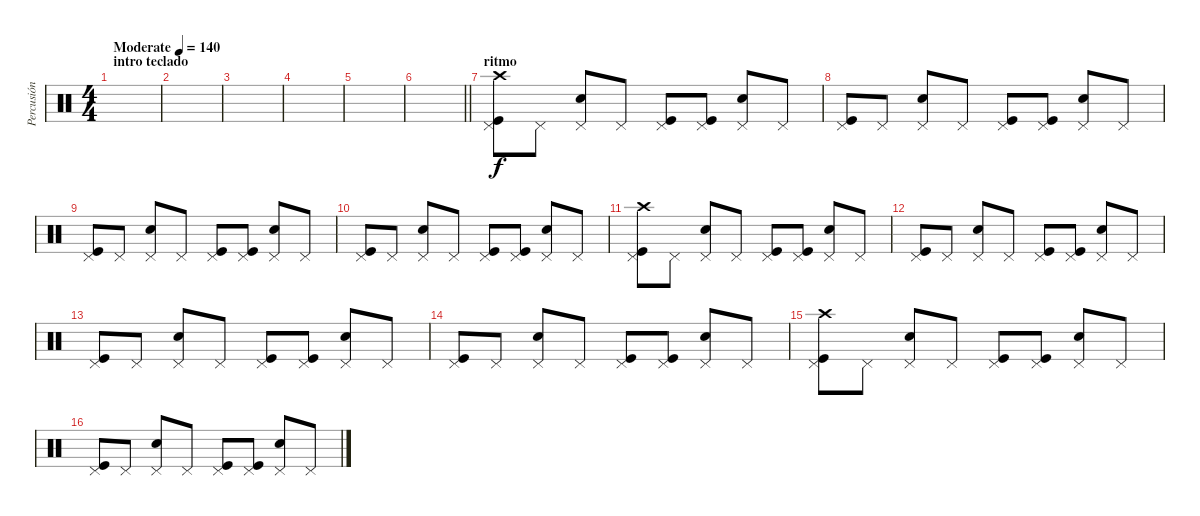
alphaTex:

\track ("Percusión" "Percusión") {instrument percussion}
\staff {score}
\articulation defaults
\ts (4 4)
\section ("" "intro teclado")
\tempo (140 "Moderate")
\clef neutral
\ks c
|
|
|
|
|
\barLineRight lightlight
|
\section ("" "ritmo")
("Crash high (hit)" "Kick (hit)" "Pedal Hi-Hat (hit)").8 "Pedal Hi-Hat (hit)".8 ("Snare (hit) 2" "Pedal Hi-Hat (hit)").8 "Pedal Hi-Hat (hit)".8 ("Kick (hit)" "Pedal Hi-Hat (hit)").8 ("Kick (hit)" "Pedal Hi-Hat (hit)").8 ("Snare (hit) 2" "Pedal Hi-Hat (hit)").8 "Pedal Hi-Hat (hit)".8 |
("Kick (hit)" "Pedal Hi-Hat (hit)").8 "Pedal Hi-Hat (hit)".8 ("Snare (hit) 2" "Pedal Hi-Hat (hit)").8 "Pedal Hi-Hat (hit)".8 ("Kick (hit)" "Pedal Hi-Hat (hit)").8 ("Kick (hit)" "Pedal Hi-Hat (hit)").8 ("Snare (hit) 2" "Pedal Hi-Hat (hit)").8 "Pedal Hi-Hat (hit)".8 |
("Kick (hit)" "Pedal Hi-Hat (hit)").8 "Pedal Hi-Hat (hit)".8 ("Snare (hit) 2" "Pedal Hi-Hat (hit)").8 "Pedal Hi-Hat (hit)".8 ("Kick (hit)" "Pedal Hi-Hat (hit)").8 ("Kick (hit)" "Pedal Hi-Hat (hit)").8 ("Snare (hit) 2" "Pedal Hi-Hat (hit)").8 "Pedal Hi-Hat (hit)".8 |
("Kick (hit)" "Pedal Hi-Hat (hit)").8 "Pedal Hi-Hat (hit)".8 ("Snare (hit) 2" "Pedal Hi-Hat (hit)").8 "Pedal Hi-Hat (hit)".8 ("Kick (hit)" "Pedal Hi-Hat (hit)").8 ("Kick (hit)" "Pedal Hi-Hat (hit)").8 ("Snare (hit) 2" "Pedal Hi-Hat (hit)").8 "Pedal Hi-Hat (hit)".8 |
("Crash high (hit)" "Kick (hit)" "Pedal Hi-Hat (hit)").8 "Pedal Hi-Hat (hit)".8 ("Snare (hit) 2" "Pedal Hi-Hat (hit)").8 "Pedal Hi-Hat (hit)".8 ("Kick (hit)" "Pedal Hi-Hat (hit)").8 ("Kick (hit)" "Pedal Hi-Hat (hit)").8 ("Snare (hit) 2" "Pedal Hi-Hat (hit)").8 "Pedal Hi-Hat (hit)".8 |
("Kick (hit)" "Pedal Hi-Hat (hit)").8 "Pedal Hi-Hat (hit)".8 ("Snare (hit) 2" "Pedal Hi-Hat (hit)").8 "Pedal Hi-Hat (hit)".8 ("Kick (hit)" "Pedal Hi-Hat (hit)").8 ("Kick (hit)" "Pedal Hi-Hat (hit)").8 ("Snare (hit) 2" "Pedal Hi-Hat (hit)").8 "Pedal Hi-Hat (hit)".8 |
("Kick (hit)" "Pedal Hi-Hat (hit)").8 "Pedal Hi-Hat (hit)".8 ("Snare (hit) 2" "Pedal Hi-Hat (hit)").8 "Pedal Hi-Hat (hit)".8 ("Kick (hit)" "Pedal Hi-Hat (hit)").8 ("Kick (hit)" "Pedal Hi-Hat (hit)").8 ("Snare (hit) 2" "Pedal Hi-Hat (hit)").8 "Pedal Hi-Hat (hit)".8 |
("Kick (hit)" "Pedal Hi-Hat (hit)").8 "Pedal Hi-Hat (hit)".8 ("Snare (hit) 2" "Pedal Hi-Hat (hit)").8 "Pedal Hi-Hat (hit)".8 ("Kick (hit)" "Pedal Hi-Hat (hit)").8 ("Kick (hit)" "Pedal Hi-Hat (hit)").8 ("Snare (hit) 2" "Pedal Hi-Hat (hit)").8 "Pedal Hi-Hat (hit)".8 |
("Crash high (hit)" "Kick (hit)" "Pedal Hi-Hat (hit)").8 "Pedal Hi-Hat (hit)".8 ("Snare (hit) 2" "Pedal Hi-Hat (hit)").8 "Pedal Hi-Hat (hit)".8 ("Kick (hit)" "Pedal Hi-Hat (hit)").8 ("Kick (hit)" "Pedal Hi-Hat (hit)").8 ("Snare (hit) 2" "Pedal Hi-Hat (hit)").8 "Pedal Hi-Hat (hit)".8 |
("Kick (hit)" "Pedal Hi-Hat (hit)").8 "Pedal Hi-Hat (hit)".8 ("Snare (hit) 2" "Pedal Hi-Hat (hit)").8 "Pedal Hi-Hat (hit)".8 ("Kick (hit)" "Pedal Hi-Hat (hit)").8 ("Kick (hit)" "Pedal Hi-Hat (hit)").8 ("Snare (hit) 2" "Pedal Hi-Hat (hit)").8 "Pedal Hi-Hat (hit)".8
